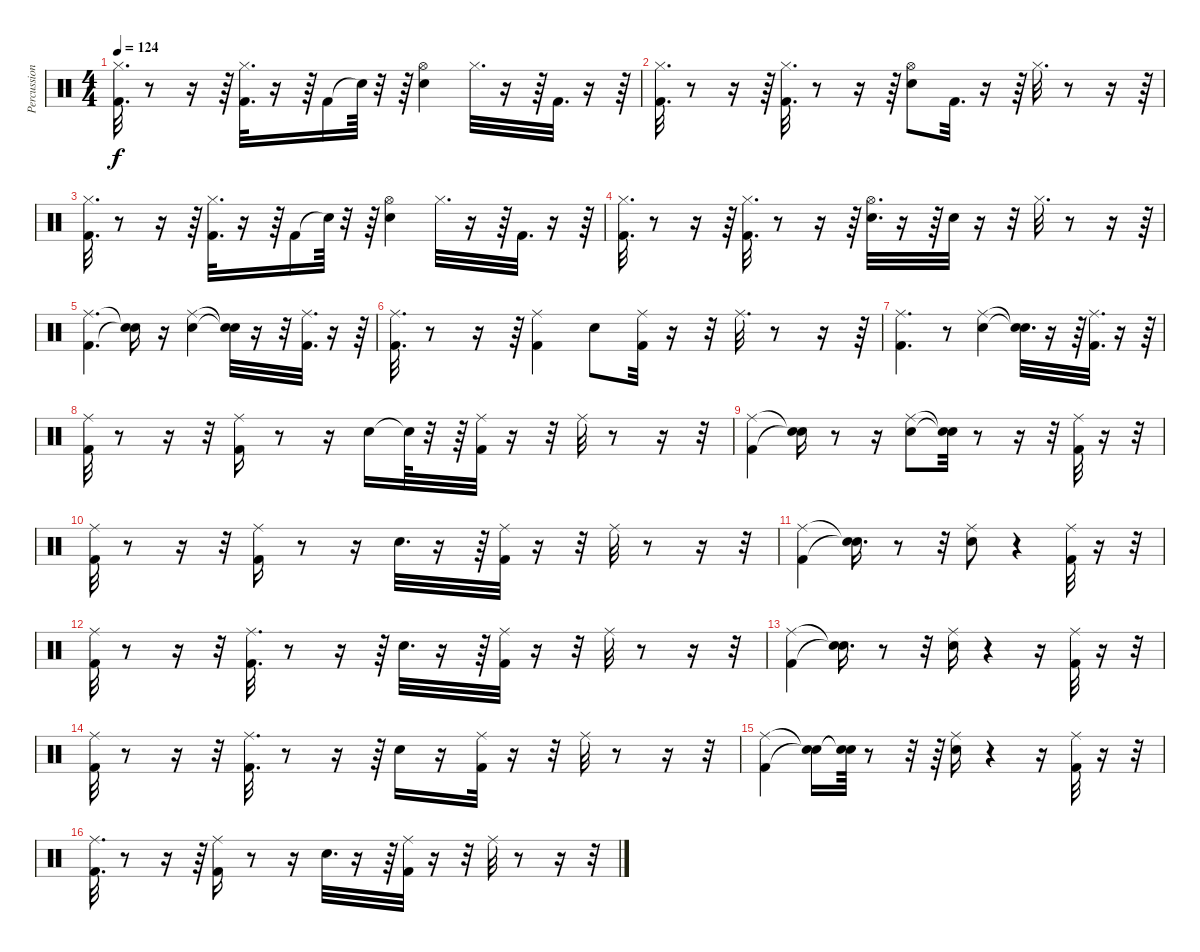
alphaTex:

\track ("Percussion" "Percussion") {instrument percussion}
\staff {score}
\articulation defaults
\ts (4 4)
\tempo 124
\clef neutral
\ks c
("Kick (hit) 2" "Hi-Hat (closed)").32{d dy f} r.8 r.16 r.64 ("Kick (hit) 2" "Hi-Hat (closed)").32{d} r.16 r.64 "Kick (hit) 2".16 "Snare (hit)"{t}.64 r.32 r.64 ("Electric Snare (hit)" "Hi-Hat (open)").4 "Hi-Hat (closed)".32{d} r.16 r.64 "Kick (hit) 2".32{d} r.16 r.64 |
("Hi-Hat (closed)" "Kick (hit) 2").32{d} r.8 r.16 r.64 ("Hi-Hat (closed)" "Kick (hit) 2").32{d} r.8 r.16 r.64 ("Hi-Hat (open)" "Electric Snare (hit)").8 "Kick (hit) 2".32{d} r.16 r.64 "Hi-Hat (closed)".32{d} r.8 r.16 r.64 |
("Hi-Hat (closed)" "Kick (hit) 2").32{d} r.8 r.16 r.64 ("Hi-Hat (closed)" "Kick (hit) 2").32{d} r.16 r.64 "Kick (hit) 2".16 "Snare (hit)"{t}.64 r.32 r.64 ("Hi-Hat (open)" "Electric Snare (hit)").4 "Hi-Hat (closed)".32{d} r.16 r.64 "Kick (hit) 2".32{d} r.16 r.64 |
("Hi-Hat (closed)" "Kick (hit) 2").32{d} r.8 r.16 r.64 ("Kick (hit) 2" "Hi-Hat (closed)").32{d} r.8 r.16 r.64 ("Electric Snare (hit)" "Hi-Hat (open)").32{d} r.16 r.64 "Electric Snare (hit)".32 r.16 r.32 "Hi-Hat (closed)".32{d} r.8 r.16 r.64 |
("Ride (middle)" "Kick (hit) 2").4{d} ("Snare (hit)"{t} "Snare (hit)"{t}).16 r.16 ("Ride (middle)" "Electric Snare (hit)").4 ("Snare (hit)"{t} "Snare (hit)"{t}).32 r.16 r.32 ("Ride (middle)" "Kick (hit) 2").32{d} r.16 r.64 |
("Ride (middle)" "Kick (hit) 2").32{d} r.8 r.16 r.64 ("Ride (middle)" "Kick (hit) 2").4 "Electric Snare (hit)".8 ("Ride (middle)" "Kick (hit) 2").32 r.16 r.32 "Ride (middle)".32{d} r.8 r.16 r.64 |
("Ride (middle)" "Kick (hit) 2").4{d} r.8 ("Ride (middle)" "Electric Snare (hit)").4 ("Snare (hit)"{t} "Snare (hit)"{t}).32{d} r.16 r.64 ("Ride (middle)" "Kick (hit) 2").32{d} r.16 r.64 |
("Kick (hit) 2" "Ride (middle)").32 r.8 r.16 r.32 ("Kick (hit) 2" "Ride (middle)").16 r.8 r.16 "Electric Snare (hit)".16 "Snare (hit)"{t}.64 r.32 r.64 ("Ride (middle)" "Kick (hit) 2").32 r.16 r.32 "Ride (middle)".32 r.8 r.16 r.32 |
("Ride (middle)" "Kick (hit) 2").4 ("Snare (hit)"{t} "Snare (hit)"{t}).16 r.8 r.16 ("Ride (middle)" "Electric Snare (hit)").8 ("Snare (hit)"{t} "Snare (hit)"{t}).32 r.8 r.16 r.32 ("Ride (middle)" "Kick (hit) 2").32 r.16 r.32 |
("Ride (middle)" "Kick (hit) 2").32 r.8 r.16 r.32 ("Kick (hit) 2" "Ride (middle)").16 r.8 r.16 "Electric Snare (hit)".32{d} r.16 r.64 ("Ride (middle)" "Kick (hit) 2").32 r.16 r.32 "Ride (middle)".32 r.8 r.16 r.32 |
("Ride (middle)" "Kick (hit) 2").4 ("Snare (hit)"{t} "Snare (hit)"{t}).16{d} r.8 r.32 ("Ride (middle)" "Electric Snare (hit)").8 r.4 ("Ride (middle)" "Kick (hit) 2").32 r.16 r.32 |
("Kick (hit) 2" "Ride (middle)").32 r.8 r.16 r.32 ("Kick (hit) 2" "Ride (middle)").32{d} r.8 r.16 r.64 "Electric Snare (hit)".32{d} r.16 r.64 ("Ride (middle)" "Kick (hit) 2").32 r.16 r.32 "Ride (middle)".32 r.8 r.16 r.32 |
("Ride (middle)" "Kick (hit) 2").4 ("Snare (hit)"{t} "Snare (hit)"{t}).16{d} r.8 r.32 ("Electric Snare (hit)" "Ride (middle)").16 r.4 r.16 ("Ride (middle)" "Kick (hit) 2").32 r.16 r.32 |
("Kick (hit) 2" "Ride (middle)").32 r.8 r.16 r.32 ("Kick (hit) 2" "Ride (middle)").32{d} r.8 r.16 r.64 "Electric Snare (hit)".16 r.16 ("Ride (middle)" "Kick (hit) 2").32 r.16 r.32 "Ride (middle)".32 r.8 r.16 r.32 |
("Ride (middle)" "Kick (hit) 2").4 ("Snare (hit)"{t} "Snare (hit)"{t}).16 ("Snare (hit)"{t} "Snare (hit)"{t}).64 r.8 r.32 r.64 ("Ride (middle)" "Electric Snare (hit)").16 r.4 r.16 ("Ride (middle)" "Kick (hit) 2").32 r.16 r.32 |
("Kick (hit) 2" "Ride (middle)").32{d} r.8 r.16 r.64 ("Kick (hit) 2" "Ride (middle)").16 r.8 r.16 "Electric Snare (hit)".32{d} r.16 r.64 ("Ride (middle)" "Kick (hit) 2").32 r.16 r.32 "Ride (middle)".32 r.8 r.16 r.32
